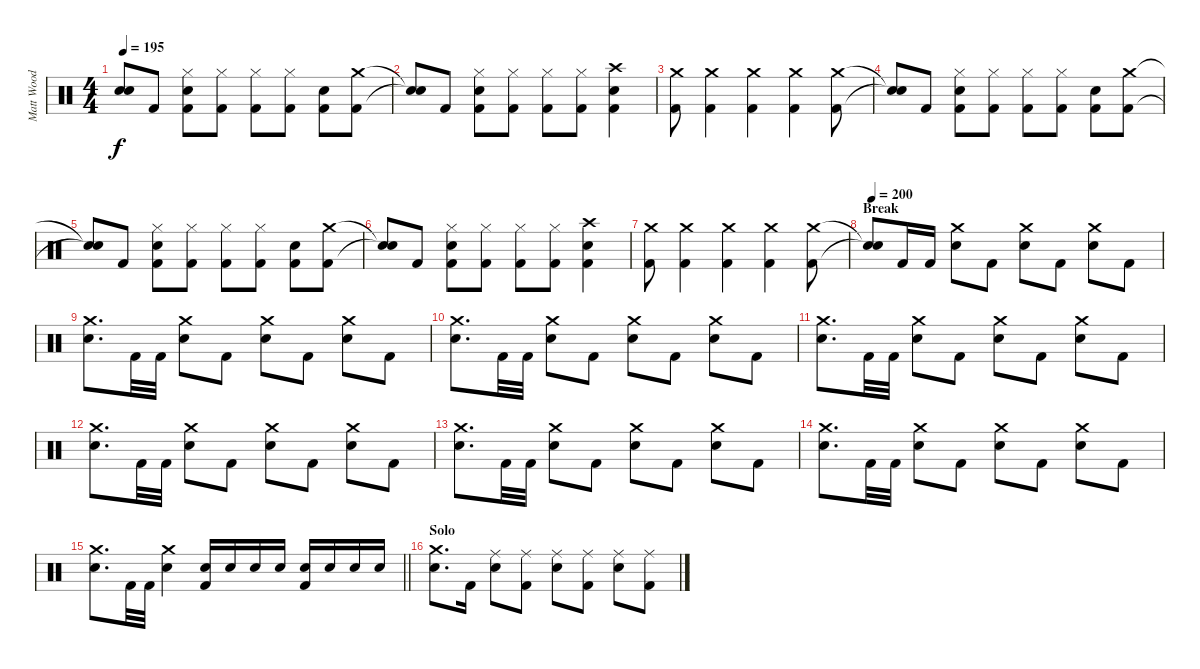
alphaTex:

\track ("Matt Wood" "Matt Wood") {instrument percussion}
\staff {score}
\articulation defaults
\ts (4 4)
\tempo 195
\clef neutral
\ks c
("Snare (hit)"{t} "Snare (hit)"{t}).8{dy f} "Kick (hit) 2".8 ("Hi-Hat (closed)" "Snare (hit) 2" "Kick (hit) 2").8 ("Hi-Hat (closed)" "Kick (hit) 2").8 ("Hi-Hat (closed)" "Kick (hit) 2").8 ("Hi-Hat (closed)" "Kick (hit) 2").8 ("Snare (hit) 2" "Kick (hit) 2").8 ("Crash medium (hit)" "Kick (hit) 2").8 |
("Snare (hit)"{t} "Snare (hit)"{t}).8 "Kick (hit) 2".8 ("Hi-Hat (closed)" "Snare (hit) 2" "Kick (hit) 2").8 ("Hi-Hat (closed)" "Kick (hit) 2").8 ("Hi-Hat (closed)" "Kick (hit) 2").8 ("Hi-Hat (closed)" "Kick (hit) 2").8 ("Crash high (hit)" "Snare (hit) 2" "Kick (hit) 2").4 |
("Crash medium (hit)" "Kick (hit) 2").8 ("Crash medium (hit)" "Kick (hit) 2").4 ("Crash medium (hit)" "Kick (hit) 2").4 ("Crash medium (hit)" "Kick (hit) 2").4 ("Crash medium (hit)" "Kick (hit) 2").8 |
("Snare (hit)"{t} "Snare (hit)"{t}).8 "Kick (hit) 2".8 ("Hi-Hat (closed)" "Snare (hit) 2" "Kick (hit) 2").8 ("Hi-Hat (closed)" "Kick (hit) 2").8 ("Hi-Hat (closed)" "Kick (hit) 2").8 ("Hi-Hat (closed)" "Kick (hit) 2").8 ("Snare (hit) 2" "Kick (hit) 2").8 ("Crash medium (hit)" "Kick (hit) 2").8 |
("Snare (hit)"{t} "Snare (hit)"{t}).8 "Kick (hit) 2".8 ("Hi-Hat (closed)" "Snare (hit) 2" "Kick (hit) 2").8 ("Hi-Hat (closed)" "Kick (hit) 2").8 ("Hi-Hat (closed)" "Kick (hit) 2").8 ("Hi-Hat (closed)" "Kick (hit) 2").8 ("Snare (hit) 2" "Kick (hit) 2").8 ("Crash medium (hit)" "Kick (hit) 2").8 |
("Snare (hit)"{t} "Snare (hit)"{t}).8 "Kick (hit) 2".8 ("Hi-Hat (closed)" "Snare (hit) 2" "Kick (hit) 2").8 ("Hi-Hat (closed)" "Kick (hit) 2").8 ("Hi-Hat (closed)" "Kick (hit) 2").8 ("Hi-Hat (closed)" "Kick (hit) 2").8 ("Crash high (hit)" "Snare (hit) 2" "Kick (hit) 2").4 |
("Crash medium (hit)" "Kick (hit) 2").8 ("Crash medium (hit)" "Kick (hit) 2").4 ("Crash medium (hit)" "Kick (hit) 2").4 ("Crash medium (hit)" "Kick (hit) 2").4 ("Crash medium (hit)" "Kick (hit) 2").8 |
\section ("" "Break")
\tempo 200
("Snare (hit)"{t} "Snare (hit)"{t}).8 "Kick (hit) 2".16 "Kick (hit) 2".16 ("Crash medium (hit)" "Snare (hit) 2").8 "Kick (hit) 2".8 ("Crash medium (hit)" "Snare (hit) 2").8 "Kick (hit) 2".8 ("Crash medium (hit)" "Snare (hit) 2").8 "Kick (hit) 2".8 |
("Crash medium (hit)" "Snare (hit) 2").8{d} "Kick (hit) 2".32 "Kick (hit) 2".32 ("Crash medium (hit)" "Snare (hit) 2").8 "Kick (hit) 2".8 ("Crash medium (hit)" "Snare (hit) 2").8 "Kick (hit) 2".8 ("Crash medium (hit)" "Snare (hit) 2").8 "Kick (hit) 2".8 |
("Crash medium (hit)" "Snare (hit) 2").8{d} "Kick (hit) 2".32 "Kick (hit) 2".32 ("Crash medium (hit)" "Snare (hit) 2").8 "Kick (hit) 2".8 ("Crash medium (hit)" "Snare (hit) 2").8 "Kick (hit) 2".8 ("Crash medium (hit)" "Snare (hit) 2").8 "Kick (hit) 2".8 |
("Crash medium (hit)" "Snare (hit) 2").8{d} "Kick (hit) 2".32 "Kick (hit) 2".32 ("Crash medium (hit)" "Snare (hit) 2").8 "Kick (hit) 2".8 ("Crash medium (hit)" "Snare (hit) 2").8 "Kick (hit) 2".8 ("Crash medium (hit)" "Snare (hit) 2").8 "Kick (hit) 2".8 |
("Crash medium (hit)" "Snare (hit) 2").8{d} "Kick (hit) 2".32 "Kick (hit) 2".32 ("Crash medium (hit)" "Snare (hit) 2").8 "Kick (hit) 2".8 ("Crash medium (hit)" "Snare (hit) 2").8 "Kick (hit) 2".8 ("Crash medium (hit)" "Snare (hit) 2").8 "Kick (hit) 2".8 |
("Crash medium (hit)" "Snare (hit) 2").8{d} "Kick (hit) 2".32 "Kick (hit) 2".32 ("Crash medium (hit)" "Snare (hit) 2").8 "Kick (hit) 2".8 ("Crash medium (hit)" "Snare (hit) 2").8 "Kick (hit) 2".8 ("Crash medium (hit)" "Snare (hit) 2").8 "Kick (hit) 2".8 |
("Crash medium (hit)" "Snare (hit) 2").8{d} "Kick (hit) 2".32 "Kick (hit) 2".32 ("Crash medium (hit)" "Snare (hit) 2").8 "Kick (hit) 2".8 ("Crash medium (hit)" "Snare (hit) 2").8 "Kick (hit) 2".8 ("Crash medium (hit)" "Snare (hit) 2").8 "Kick (hit) 2".8 |
\barLineRight lightlight
("Crash medium (hit)" "Snare (hit) 2").8{d} "Kick (hit) 2".32 "Kick (hit) 2".32 ("Crash medium (hit)" "Snare (hit) 2").4 ("Snare (hit) 2" "Kick (hit) 2").16 "Snare (hit) 2".16 "Snare (hit) 2".16 "Snare (hit) 2".16 ("Snare (hit) 2" "Kick (hit) 2").16 "Snare (hit) 2".16 "Snare (hit) 2".16 "Snare (hit) 2".16 |
\section ("" "Solo")
("Crash medium (hit)" "Snare (hit) 2").8{d} "Kick (hit) 2".16 ("Ride (middle)" "Snare (hit) 2").8 ("Ride (middle)" "Kick (hit) 2").8 ("Ride (middle)" "Snare (hit) 2").8 ("Ride (middle)" "Kick (hit) 2").8 ("Ride (middle)" "Snare (hit) 2").8 ("Ride (middle)" "Kick (hit) 2").8
